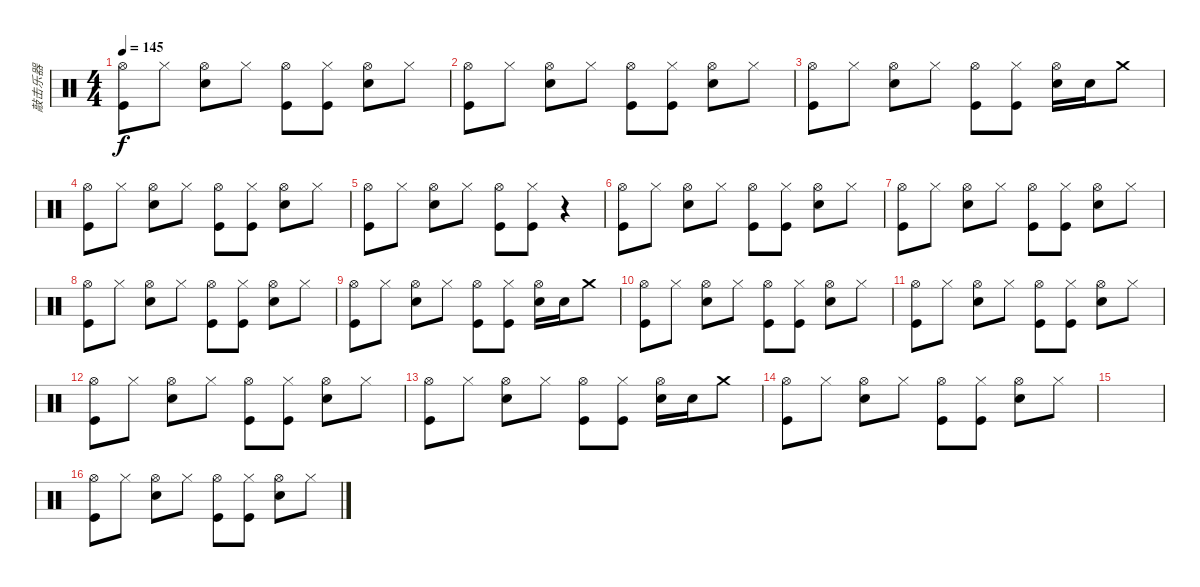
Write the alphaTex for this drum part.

\track ("敲击乐器" "敲击乐器") {instrument percussion}
\staff {score}
\articulation defaults
\ts (4 4)
\tempo 145
\clef neutral
\ks c
("Hi-Hat (open)" "Kick (hit)").8{dy f} "Hi-Hat (closed)".8 ("Hi-Hat (open)" "Snare (hit) 2").8 "Hi-Hat (closed)".8 ("Hi-Hat (open)" "Kick (hit)").8 ("Hi-Hat (closed)" "Kick (hit)").8 ("Hi-Hat (open)" "Snare (hit) 2").8 "Hi-Hat (closed)".8 |
("Hi-Hat (open)" "Kick (hit)").8 "Hi-Hat (closed)".8 ("Hi-Hat (open)" "Snare (hit) 2").8 "Hi-Hat (closed)".8 ("Hi-Hat (open)" "Kick (hit)").8 ("Hi-Hat (closed)" "Kick (hit)").8 ("Hi-Hat (open)" "Snare (hit) 2").8 "Hi-Hat (closed)".8 |
("Hi-Hat (open)" "Kick (hit)").8 "Hi-Hat (closed)".8 ("Hi-Hat (open)" "Snare (hit) 2").8 "Hi-Hat (closed)".8 ("Hi-Hat (open)" "Kick (hit)").8 ("Hi-Hat (closed)" "Kick (hit)").8 ("Hi-Hat (open)" "Snare (hit) 2").16 "Snare (hit) 2".16 "Crash medium (hit)".8 |
("Hi-Hat (open)" "Kick (hit)").8 "Hi-Hat (closed)".8 ("Hi-Hat (open)" "Snare (hit) 2").8 "Hi-Hat (closed)".8 ("Hi-Hat (open)" "Kick (hit)").8 ("Hi-Hat (closed)" "Kick (hit)").8 ("Hi-Hat (open)" "Snare (hit) 2").8 "Hi-Hat (closed)".8 |
("Hi-Hat (open)" "Kick (hit)").8 "Hi-Hat (closed)".8 ("Hi-Hat (open)" "Snare (hit) 2").8 "Hi-Hat (closed)".8 ("Hi-Hat (open)" "Kick (hit)").8 ("Hi-Hat (closed)" "Kick (hit)").8 r.4 |
("Hi-Hat (open)" "Kick (hit)").8 "Hi-Hat (closed)".8 ("Hi-Hat (open)" "Snare (hit) 2").8 "Hi-Hat (closed)".8 ("Hi-Hat (open)" "Kick (hit)").8 ("Hi-Hat (closed)" "Kick (hit)").8 ("Hi-Hat (open)" "Snare (hit) 2").8 "Hi-Hat (closed)".8 |
("Hi-Hat (open)" "Kick (hit)").8 "Hi-Hat (closed)".8 ("Hi-Hat (open)" "Snare (hit) 2").8 "Hi-Hat (closed)".8 ("Hi-Hat (open)" "Kick (hit)").8 ("Hi-Hat (closed)" "Kick (hit)").8 ("Hi-Hat (open)" "Snare (hit) 2").8 "Hi-Hat (closed)".8 |
("Hi-Hat (open)" "Kick (hit)").8 "Hi-Hat (closed)".8 ("Hi-Hat (open)" "Snare (hit) 2").8 "Hi-Hat (closed)".8 ("Hi-Hat (open)" "Kick (hit)").8 ("Hi-Hat (closed)" "Kick (hit)").8 ("Hi-Hat (open)" "Snare (hit) 2").8 "Hi-Hat (closed)".8 |
("Hi-Hat (open)" "Kick (hit)").8 "Hi-Hat (closed)".8 ("Hi-Hat (open)" "Snare (hit) 2").8 "Hi-Hat (closed)".8 ("Hi-Hat (open)" "Kick (hit)").8 ("Hi-Hat (closed)" "Kick (hit)").8 ("Hi-Hat (open)" "Snare (hit) 2").16 "Snare (hit) 2".16 "Crash medium (hit)".8 |
("Hi-Hat (open)" "Kick (hit)").8 "Hi-Hat (closed)".8 ("Hi-Hat (open)" "Snare (hit) 2").8 "Hi-Hat (closed)".8 ("Hi-Hat (open)" "Kick (hit)").8 ("Hi-Hat (closed)" "Kick (hit)").8 ("Hi-Hat (open)" "Snare (hit) 2").8 "Hi-Hat (closed)".8 |
("Hi-Hat (open)" "Kick (hit)").8 "Hi-Hat (closed)".8 ("Hi-Hat (open)" "Snare (hit) 2").8 "Hi-Hat (closed)".8 ("Hi-Hat (open)" "Kick (hit)").8 ("Hi-Hat (closed)" "Kick (hit)").8 ("Hi-Hat (open)" "Snare (hit) 2").8 "Hi-Hat (closed)".8 |
("Hi-Hat (open)" "Kick (hit)").8 "Hi-Hat (closed)".8 ("Hi-Hat (open)" "Snare (hit) 2").8 "Hi-Hat (closed)".8 ("Hi-Hat (open)" "Kick (hit)").8 ("Hi-Hat (closed)" "Kick (hit)").8 ("Hi-Hat (open)" "Snare (hit) 2").8 "Hi-Hat (closed)".8 |
("Hi-Hat (open)" "Kick (hit)").8 "Hi-Hat (closed)".8 ("Hi-Hat (open)" "Snare (hit) 2").8 "Hi-Hat (closed)".8 ("Hi-Hat (open)" "Kick (hit)").8 ("Hi-Hat (closed)" "Kick (hit)").8 ("Hi-Hat (open)" "Snare (hit) 2").16 "Snare (hit) 2".16 "Crash medium (hit)".8 |
("Hi-Hat (open)" "Kick (hit)").8 "Hi-Hat (closed)".8 ("Hi-Hat (open)" "Snare (hit) 2").8 "Hi-Hat (closed)".8 ("Hi-Hat (open)" "Kick (hit)").8 ("Hi-Hat (closed)" "Kick (hit)").8 ("Hi-Hat (open)" "Snare (hit) 2").8 "Hi-Hat (closed)".8 |
|
("Hi-Hat (open)" "Kick (hit)").8 "Hi-Hat (closed)".8 ("Hi-Hat (open)" "Snare (hit) 2").8 "Hi-Hat (closed)".8 ("Hi-Hat (open)" "Kick (hit)").8 ("Hi-Hat (closed)" "Kick (hit)").8 ("Hi-Hat (open)" "Snare (hit) 2").8 "Hi-Hat (closed)".8
